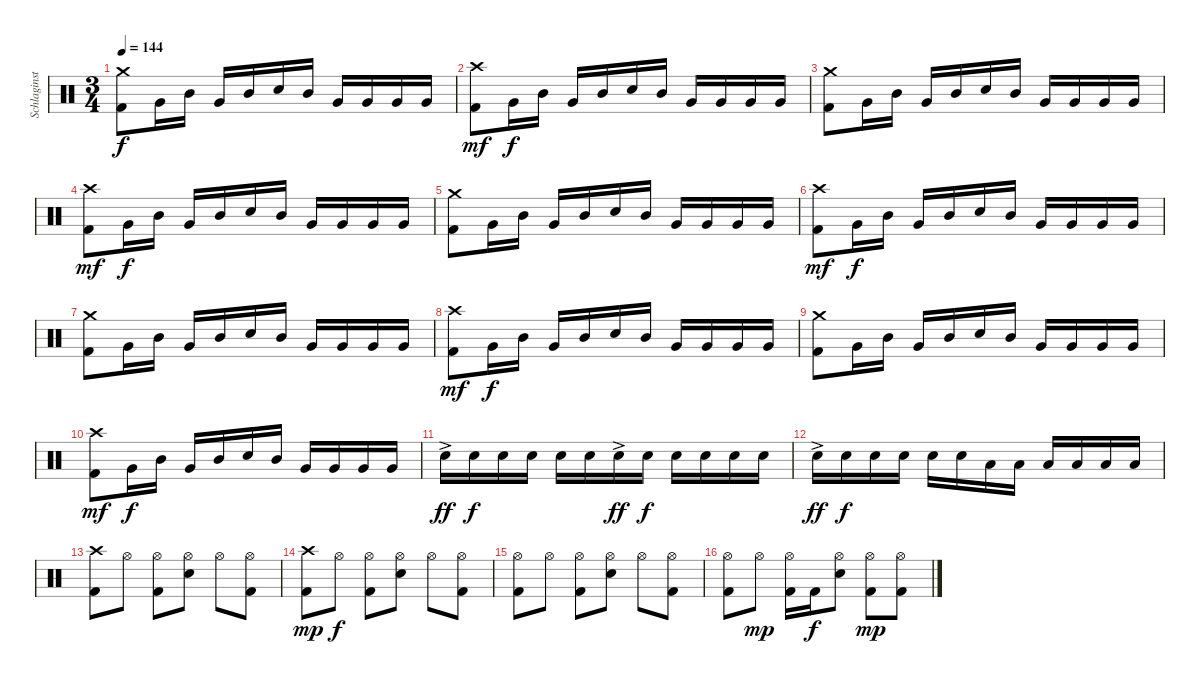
\track ("Schlaginstrumente - Auswahl" "Schlaginst") {instrument percussion}
\staff {score}
\articulation defaults
\ts (3 4)
\tempo 144
\clef neutral
\ks c
("Crash medium (hit)" "Kick (hit) 2").8{dy f} "Very Low Tom (hit)".16 "Mid Tom (hit)".16 "Very Low Tom (hit)".16 "Mid Tom (hit)".16 "Snare (hit) 2".16 "Mid Tom (hit)".16 "Very Low Tom (hit)".16 "Very Low Tom (hit)".16 "Very Low Tom (hit)".16 "Very Low Tom (hit)".16 |
("Crash high (hit)" "Kick (hit) 2").8{dy mf} "Very Low Tom (hit)".16{dy f} "Mid Tom (hit)".16 "Very Low Tom (hit)".16 "Mid Tom (hit)".16 "Snare (hit) 2".16 "Mid Tom (hit)".16 "Very Low Tom (hit)".16 "Very Low Tom (hit)".16 "Very Low Tom (hit)".16 "Very Low Tom (hit)".16 |
("Crash medium (hit)" "Kick (hit) 2").8 "Very Low Tom (hit)".16 "Mid Tom (hit)".16 "Very Low Tom (hit)".16 "Mid Tom (hit)".16 "Snare (hit) 2".16 "Mid Tom (hit)".16 "Very Low Tom (hit)".16 "Very Low Tom (hit)".16 "Very Low Tom (hit)".16 "Very Low Tom (hit)".16 |
("Crash high (hit)" "Kick (hit) 2").8{dy mf} "Very Low Tom (hit)".16{dy f} "Mid Tom (hit)".16 "Very Low Tom (hit)".16 "Mid Tom (hit)".16 "Snare (hit) 2".16 "Mid Tom (hit)".16 "Very Low Tom (hit)".16 "Very Low Tom (hit)".16 "Very Low Tom (hit)".16 "Very Low Tom (hit)".16 |
("Crash medium (hit)" "Kick (hit) 2").8 "Very Low Tom (hit)".16 "Mid Tom (hit)".16 "Very Low Tom (hit)".16 "Mid Tom (hit)".16 "Snare (hit) 2".16 "Mid Tom (hit)".16 "Very Low Tom (hit)".16 "Very Low Tom (hit)".16 "Very Low Tom (hit)".16 "Very Low Tom (hit)".16 |
("Crash high (hit)" "Kick (hit) 2").8{dy mf} "Very Low Tom (hit)".16{dy f} "Mid Tom (hit)".16 "Very Low Tom (hit)".16 "Mid Tom (hit)".16 "Snare (hit) 2".16 "Mid Tom (hit)".16 "Very Low Tom (hit)".16 "Very Low Tom (hit)".16 "Very Low Tom (hit)".16 "Very Low Tom (hit)".16 |
("Crash medium (hit)" "Kick (hit) 2").8 "Very Low Tom (hit)".16 "Mid Tom (hit)".16 "Very Low Tom (hit)".16 "Mid Tom (hit)".16 "Snare (hit) 2".16 "Mid Tom (hit)".16 "Very Low Tom (hit)".16 "Very Low Tom (hit)".16 "Very Low Tom (hit)".16 "Very Low Tom (hit)".16 |
("Crash high (hit)" "Kick (hit) 2").8{dy mf} "Very Low Tom (hit)".16{dy f} "Mid Tom (hit)".16 "Very Low Tom (hit)".16 "Mid Tom (hit)".16 "Snare (hit) 2".16 "Mid Tom (hit)".16 "Very Low Tom (hit)".16 "Very Low Tom (hit)".16 "Very Low Tom (hit)".16 "Very Low Tom (hit)".16 |
("Crash medium (hit)" "Kick (hit) 2").8 "Very Low Tom (hit)".16 "Mid Tom (hit)".16 "Very Low Tom (hit)".16 "Mid Tom (hit)".16 "Snare (hit) 2".16 "Mid Tom (hit)".16 "Very Low Tom (hit)".16 "Very Low Tom (hit)".16 "Very Low Tom (hit)".16 "Very Low Tom (hit)".16 |
("Crash high (hit)" "Kick (hit) 2").8{dy mf} "Very Low Tom (hit)".16{dy f} "Mid Tom (hit)".16 "Very Low Tom (hit)".16 "Mid Tom (hit)".16 "Snare (hit) 2".16 "Mid Tom (hit)".16 "Very Low Tom (hit)".16 "Very Low Tom (hit)".16 "Very Low Tom (hit)".16 "Very Low Tom (hit)".16 |
"Snare (hit) 2"{ac}.16{dy ff} "Snare (hit) 2".16{dy f} "Snare (hit) 2".16 "Snare (hit) 2".16 "Snare (hit) 2".16 "Snare (hit) 2".16 "Snare (hit) 2"{ac}.16{dy ff} "Snare (hit) 2".16{dy f} "Snare (hit) 2".16 "Snare (hit) 2".16 "Snare (hit) 2".16 "Snare (hit) 2".16 |
"Snare (hit) 2"{ac}.16{dy ff} "Snare (hit) 2".16{dy f} "Snare (hit) 2".16 "Snare (hit) 2".16 "Snare (hit) 2".16 "Snare (hit) 2".16 "Low Tom (hit)".16 "Low Tom (hit)".16 "Low Tom (hit)".16 "Low Tom (hit)".16 "Low Tom (hit)".16 "Low Tom (hit)".16 |
("Crash high (hit)" "Kick (hit) 2").8 "Hi-Hat (open)".8 ("Hi-Hat (open)" "Kick (hit) 2").8 ("Hi-Hat (open)" "Snare (hit) 2").8 "Hi-Hat (open)".8 ("Hi-Hat (open)" "Kick (hit) 2").8 |
("Crash high (hit)" "Kick (hit) 2").8{dy mp} "Hi-Hat (open)".8{dy f} ("Hi-Hat (open)" "Kick (hit) 2").8 ("Hi-Hat (open)" "Snare (hit) 2").8 "Hi-Hat (open)".8 ("Hi-Hat (open)" "Kick (hit) 2").8 |
("Hi-Hat (open)" "Kick (hit) 2").8 "Hi-Hat (open)".8 ("Hi-Hat (open)" "Kick (hit) 2").8 ("Hi-Hat (open)" "Snare (hit) 2").8 "Hi-Hat (open)".8 ("Hi-Hat (open)" "Kick (hit) 2").8 |
("Hi-Hat (open)" "Kick (hit) 2").8 "Hi-Hat (open)".8{dy mp} ("Hi-Hat (open)" "Kick (hit) 2").16 "Kick (hit) 2".16{dy f} ("Hi-Hat (open)" "Snare (hit) 2").8 ("Hi-Hat (open)" "Kick (hit) 2").8{dy mp} ("Hi-Hat (open)" "Kick (hit) 2").8
